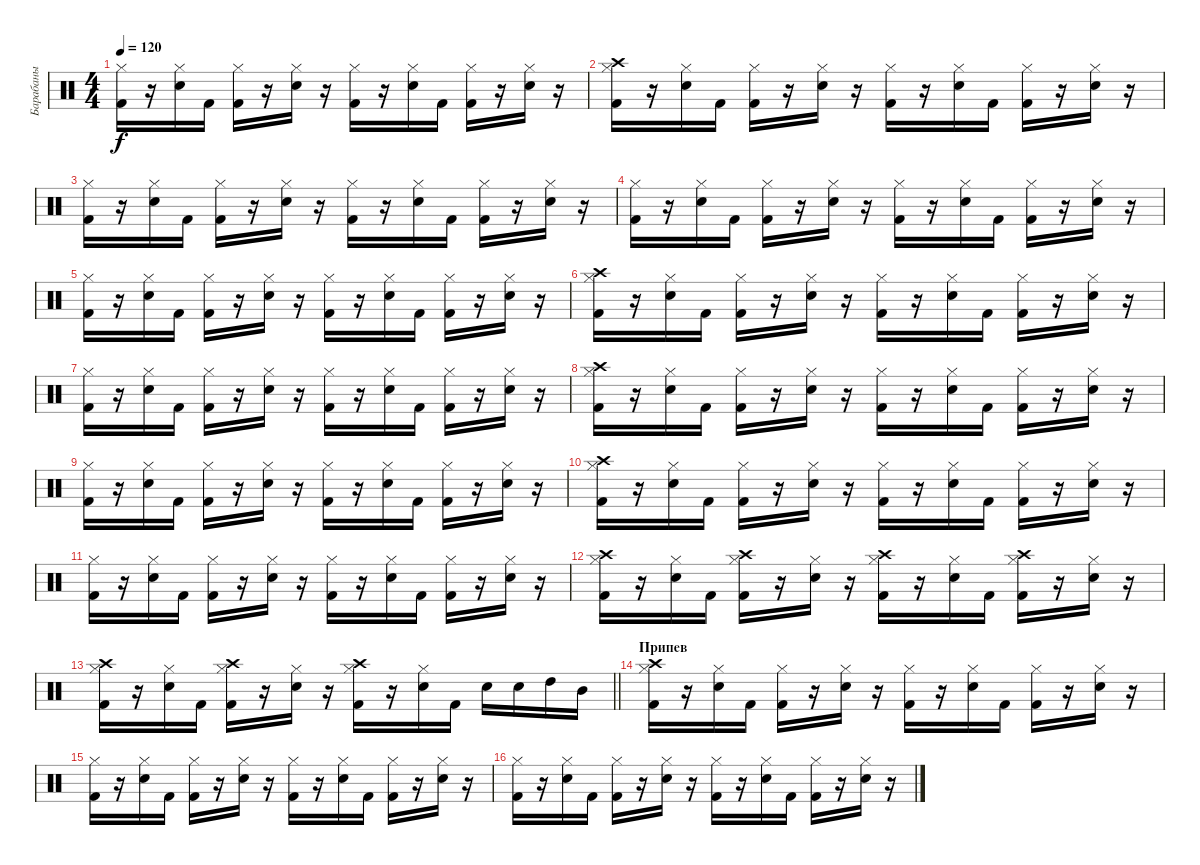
\track ("Барабаны" "Барабаны") {instrument percussion}
\staff {score}
\articulation defaults
\ts (4 4)
\tempo 120
\clef neutral
\ks c
("Hi-Hat (closed)" "Kick (hit) 2").16{dy f} r.16 ("Hi-Hat (closed)" "Electric Snare (hit)").16 "Kick (hit) 2".16 ("Hi-Hat (closed)" "Kick (hit) 2").16 r.16 ("Hi-Hat (closed)" "Electric Snare (hit)").16 r.16 ("Hi-Hat (closed)" "Kick (hit) 2").16 r.16 ("Hi-Hat (closed)" "Electric Snare (hit)").16 "Kick (hit) 2".16 ("Hi-Hat (closed)" "Kick (hit) 2").16 r.16 ("Hi-Hat (closed)" "Electric Snare (hit)").16 r.16 |
("Hi-Hat (closed)" "Kick (hit) 2" "Crash high (hit)").16 r.16 ("Hi-Hat (closed)" "Electric Snare (hit)").16 "Kick (hit) 2".16 ("Hi-Hat (closed)" "Kick (hit) 2").16 r.16 ("Hi-Hat (closed)" "Electric Snare (hit)").16 r.16 ("Hi-Hat (closed)" "Kick (hit) 2").16 r.16 ("Hi-Hat (closed)" "Electric Snare (hit)").16 "Kick (hit) 2".16 ("Hi-Hat (closed)" "Kick (hit) 2").16 r.16 ("Hi-Hat (closed)" "Electric Snare (hit)").16 r.16 |
("Hi-Hat (closed)" "Kick (hit) 2").16 r.16 ("Hi-Hat (closed)" "Electric Snare (hit)").16 "Kick (hit) 2".16 ("Hi-Hat (closed)" "Kick (hit) 2").16 r.16 ("Hi-Hat (closed)" "Electric Snare (hit)").16 r.16 ("Hi-Hat (closed)" "Kick (hit) 2").16 r.16 ("Hi-Hat (closed)" "Electric Snare (hit)").16 "Kick (hit) 2".16 ("Hi-Hat (closed)" "Kick (hit) 2").16 r.16 ("Hi-Hat (closed)" "Electric Snare (hit)").16 r.16 |
("Hi-Hat (closed)" "Kick (hit) 2").16 r.16 ("Hi-Hat (closed)" "Electric Snare (hit)").16 "Kick (hit) 2".16 ("Hi-Hat (closed)" "Kick (hit) 2").16 r.16 ("Hi-Hat (closed)" "Electric Snare (hit)").16 r.16 ("Hi-Hat (closed)" "Kick (hit) 2").16 r.16 ("Hi-Hat (closed)" "Electric Snare (hit)").16 "Kick (hit) 2".16 ("Hi-Hat (closed)" "Kick (hit) 2").16 r.16 ("Hi-Hat (closed)" "Electric Snare (hit)").16 r.16 |
("Hi-Hat (closed)" "Kick (hit) 2").16 r.16 ("Hi-Hat (closed)" "Electric Snare (hit)").16 "Kick (hit) 2".16 ("Hi-Hat (closed)" "Kick (hit) 2").16 r.16 ("Hi-Hat (closed)" "Electric Snare (hit)").16 r.16 ("Hi-Hat (closed)" "Kick (hit) 2").16 r.16 ("Hi-Hat (closed)" "Electric Snare (hit)").16 "Kick (hit) 2".16 ("Hi-Hat (closed)" "Kick (hit) 2").16 r.16 ("Hi-Hat (closed)" "Electric Snare (hit)").16 r.16 |
("Hi-Hat (closed)" "Kick (hit) 2" "Crash high (hit)").16 r.16 ("Hi-Hat (closed)" "Electric Snare (hit)").16 "Kick (hit) 2".16 ("Hi-Hat (closed)" "Kick (hit) 2").16 r.16 ("Hi-Hat (closed)" "Electric Snare (hit)").16 r.16 ("Hi-Hat (closed)" "Kick (hit) 2").16 r.16 ("Hi-Hat (closed)" "Electric Snare (hit)").16 "Kick (hit) 2".16 ("Hi-Hat (closed)" "Kick (hit) 2").16 r.16 ("Hi-Hat (closed)" "Electric Snare (hit)").16 r.16 |
("Hi-Hat (closed)" "Kick (hit) 2").16 r.16 ("Hi-Hat (closed)" "Electric Snare (hit)").16 "Kick (hit) 2".16 ("Hi-Hat (closed)" "Kick (hit) 2").16 r.16 ("Hi-Hat (closed)" "Electric Snare (hit)").16 r.16 ("Hi-Hat (closed)" "Kick (hit) 2").16 r.16 ("Hi-Hat (closed)" "Electric Snare (hit)").16 "Kick (hit) 2".16 ("Hi-Hat (closed)" "Kick (hit) 2").16 r.16 ("Hi-Hat (closed)" "Electric Snare (hit)").16 r.16 |
("Hi-Hat (closed)" "Kick (hit) 2" "Crash high (hit)").16 r.16 ("Hi-Hat (closed)" "Electric Snare (hit)").16 "Kick (hit) 2".16 ("Hi-Hat (closed)" "Kick (hit) 2").16 r.16 ("Hi-Hat (closed)" "Electric Snare (hit)").16 r.16 ("Hi-Hat (closed)" "Kick (hit) 2").16 r.16 ("Hi-Hat (closed)" "Electric Snare (hit)").16 "Kick (hit) 2".16 ("Hi-Hat (closed)" "Kick (hit) 2").16 r.16 ("Hi-Hat (closed)" "Electric Snare (hit)").16 r.16 |
("Hi-Hat (closed)" "Kick (hit) 2").16 r.16 ("Hi-Hat (closed)" "Electric Snare (hit)").16 "Kick (hit) 2".16 ("Hi-Hat (closed)" "Kick (hit) 2").16 r.16 ("Hi-Hat (closed)" "Electric Snare (hit)").16 r.16 ("Hi-Hat (closed)" "Kick (hit) 2").16 r.16 ("Hi-Hat (closed)" "Electric Snare (hit)").16 "Kick (hit) 2".16 ("Hi-Hat (closed)" "Kick (hit) 2").16 r.16 ("Hi-Hat (closed)" "Electric Snare (hit)").16 r.16 |
("Hi-Hat (closed)" "Kick (hit) 2" "Crash high (hit)").16 r.16 ("Hi-Hat (closed)" "Electric Snare (hit)").16 "Kick (hit) 2".16 ("Hi-Hat (closed)" "Kick (hit) 2").16 r.16 ("Hi-Hat (closed)" "Electric Snare (hit)").16 r.16 ("Hi-Hat (closed)" "Kick (hit) 2").16 r.16 ("Hi-Hat (closed)" "Electric Snare (hit)").16 "Kick (hit) 2".16 ("Hi-Hat (closed)" "Kick (hit) 2").16 r.16 ("Hi-Hat (closed)" "Electric Snare (hit)").16 r.16 |
("Hi-Hat (closed)" "Kick (hit) 2").16 r.16 ("Hi-Hat (closed)" "Electric Snare (hit)").16 "Kick (hit) 2".16 ("Hi-Hat (closed)" "Kick (hit) 2").16 r.16 ("Hi-Hat (closed)" "Electric Snare (hit)").16 r.16 ("Hi-Hat (closed)" "Kick (hit) 2").16 r.16 ("Hi-Hat (closed)" "Electric Snare (hit)").16 "Kick (hit) 2".16 ("Hi-Hat (closed)" "Kick (hit) 2").16 r.16 ("Hi-Hat (closed)" "Electric Snare (hit)").16 r.16 |
("Hi-Hat (closed)" "Kick (hit) 2" "Crash high (hit)").16 r.16 ("Hi-Hat (closed)" "Electric Snare (hit)").16 "Kick (hit) 2".16 ("Hi-Hat (closed)" "Kick (hit) 2" "Crash high (hit)").16 r.16 ("Hi-Hat (closed)" "Electric Snare (hit)").16 r.16 ("Hi-Hat (closed)" "Kick (hit) 2" "Crash high (hit)").16 r.16 ("Hi-Hat (closed)" "Electric Snare (hit)").16 "Kick (hit) 2".16 ("Hi-Hat (closed)" "Kick (hit) 2" "Crash high (hit)").16 r.16 ("Hi-Hat (closed)" "Electric Snare (hit)").16 r.16 |
\barLineRight lightlight
("Hi-Hat (closed)" "Kick (hit) 2" "Crash high (hit)").16 r.16 ("Hi-Hat (closed)" "Electric Snare (hit)").16 "Kick (hit) 2".16 ("Hi-Hat (closed)" "Kick (hit) 2" "Crash high (hit)").16 r.16 ("Hi-Hat (closed)" "Electric Snare (hit)").16 r.16 ("Hi-Hat (closed)" "Kick (hit) 2" "Crash high (hit)").16 r.16 ("Hi-Hat (closed)" "Electric Snare (hit)").16 "Kick (hit) 2".16 "Electric Snare (hit)".16 "Electric Snare (hit)".16 "High Tom (hit)".16 "Mid Tom (hit)".16 |
\section ("" "Припев")
("Hi-Hat (closed)" "Kick (hit) 2" "Crash high (hit)").16 r.16 ("Hi-Hat (closed)" "Electric Snare (hit)").16 "Kick (hit) 2".16 ("Hi-Hat (closed)" "Kick (hit) 2").16 r.16 ("Hi-Hat (closed)" "Electric Snare (hit)").16 r.16 ("Hi-Hat (closed)" "Kick (hit) 2").16 r.16 ("Hi-Hat (closed)" "Electric Snare (hit)").16 "Kick (hit) 2".16 ("Hi-Hat (closed)" "Kick (hit) 2").16 r.16 ("Hi-Hat (closed)" "Electric Snare (hit)").16 r.16 |
("Hi-Hat (closed)" "Kick (hit) 2").16 r.16 ("Hi-Hat (closed)" "Electric Snare (hit)").16 "Kick (hit) 2".16 ("Hi-Hat (closed)" "Kick (hit) 2").16 r.16 ("Hi-Hat (closed)" "Electric Snare (hit)").16 r.16 ("Hi-Hat (closed)" "Kick (hit) 2").16 r.16 ("Hi-Hat (closed)" "Electric Snare (hit)").16 "Kick (hit) 2".16 ("Hi-Hat (closed)" "Kick (hit) 2").16 r.16 ("Hi-Hat (closed)" "Electric Snare (hit)").16 r.16 |
("Hi-Hat (closed)" "Kick (hit) 2").16 r.16 ("Hi-Hat (closed)" "Electric Snare (hit)").16 "Kick (hit) 2".16 ("Hi-Hat (closed)" "Kick (hit) 2").16 r.16 ("Hi-Hat (closed)" "Electric Snare (hit)").16 r.16 ("Hi-Hat (closed)" "Kick (hit) 2").16 r.16 ("Hi-Hat (closed)" "Electric Snare (hit)").16 "Kick (hit) 2".16 ("Hi-Hat (closed)" "Kick (hit) 2").16 r.16 ("Hi-Hat (closed)" "Electric Snare (hit)").16 r.16
